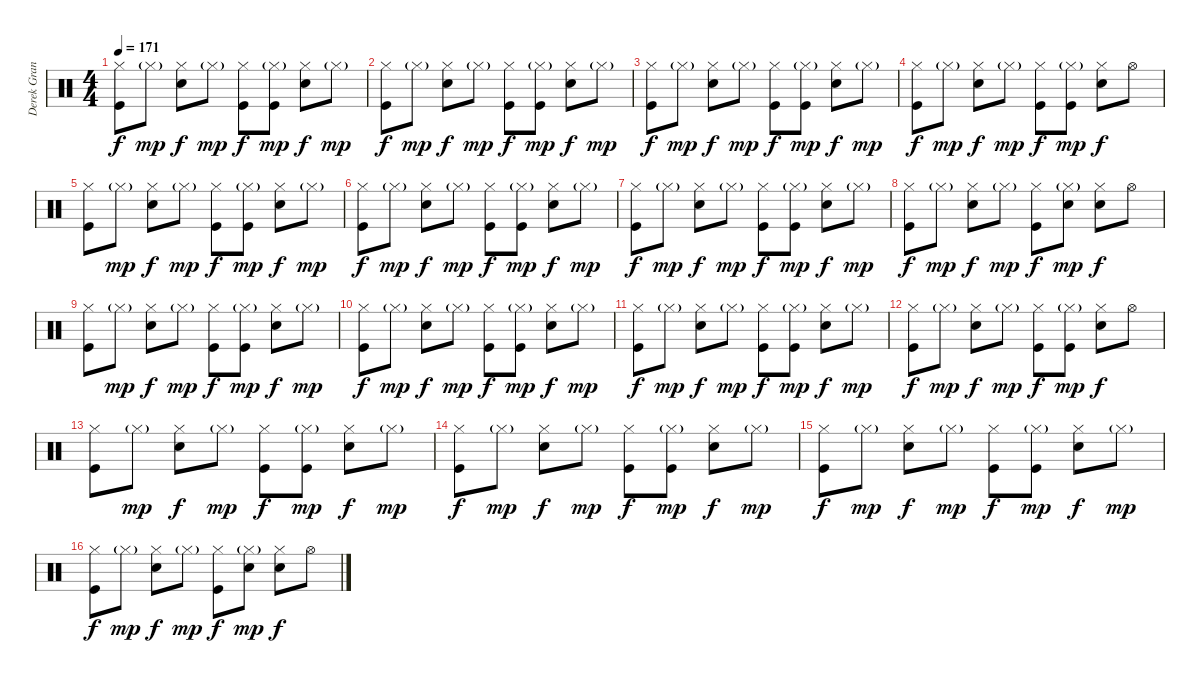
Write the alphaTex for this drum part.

\track ("Derek Grant" "Derek Gran") {instrument percussion}
\staff {score}
\articulation defaults
\ts (4 4)
\tempo 171
\clef neutral
\ks c
("Hi-Hat (closed)" "Kick (hit)").8{dy f} "Hi-Hat (closed)"{g}.8{dy mp} ("Hi-Hat (closed)" "Electric Snare (hit)").8{dy f} "Hi-Hat (closed)"{g}.8{dy mp} ("Hi-Hat (closed)" "Kick (hit)").8{dy f} ("Hi-Hat (closed)"{g} "Kick (hit)").8{dy mp} ("Hi-Hat (closed)" "Electric Snare (hit)").8{dy f} "Hi-Hat (closed)"{g}.8{dy mp} |
("Hi-Hat (closed)" "Kick (hit)").8{dy f} "Hi-Hat (closed)"{g}.8{dy mp} ("Hi-Hat (closed)" "Electric Snare (hit)").8{dy f} "Hi-Hat (closed)"{g}.8{dy mp} ("Hi-Hat (closed)" "Kick (hit)").8{dy f} ("Hi-Hat (closed)"{g} "Kick (hit)").8{dy mp} ("Hi-Hat (closed)" "Electric Snare (hit)").8{dy f} "Hi-Hat (closed)"{g}.8{dy mp} |
("Hi-Hat (closed)" "Kick (hit)").8{dy f} "Hi-Hat (closed)"{g}.8{dy mp} ("Hi-Hat (closed)" "Electric Snare (hit)").8{dy f} "Hi-Hat (closed)"{g}.8{dy mp} ("Hi-Hat (closed)" "Kick (hit)").8{dy f} ("Hi-Hat (closed)"{g} "Kick (hit)").8{dy mp} ("Hi-Hat (closed)" "Electric Snare (hit)").8{dy f} "Hi-Hat (closed)"{g}.8{dy mp} |
("Hi-Hat (closed)" "Kick (hit)").8{dy f} "Hi-Hat (closed)"{g}.8{dy mp} ("Hi-Hat (closed)" "Electric Snare (hit)").8{dy f} "Hi-Hat (closed)"{g}.8{dy mp} ("Hi-Hat (closed)" "Kick (hit)").8{dy f} ("Hi-Hat (closed)"{g} "Kick (hit)").8{dy mp} ("Hi-Hat (closed)" "Electric Snare (hit)").8{dy f} "Hi-Hat (open)".8 |
("Hi-Hat (closed)" "Kick (hit)").8 "Hi-Hat (closed)"{g}.8{dy mp} ("Hi-Hat (closed)" "Electric Snare (hit)").8{dy f} "Hi-Hat (closed)"{g}.8{dy mp} ("Hi-Hat (closed)" "Kick (hit)").8{dy f} ("Hi-Hat (closed)"{g} "Kick (hit)").8{dy mp} ("Hi-Hat (closed)" "Electric Snare (hit)").8{dy f} "Hi-Hat (closed)"{g}.8{dy mp} |
("Hi-Hat (closed)" "Kick (hit)").8{dy f} "Hi-Hat (closed)"{g}.8{dy mp} ("Hi-Hat (closed)" "Electric Snare (hit)").8{dy f} "Hi-Hat (closed)"{g}.8{dy mp} ("Hi-Hat (closed)" "Kick (hit)").8{dy f} ("Hi-Hat (closed)"{g} "Kick (hit)").8{dy mp} ("Hi-Hat (closed)" "Electric Snare (hit)").8{dy f} "Hi-Hat (closed)"{g}.8{dy mp} |
("Hi-Hat (closed)" "Kick (hit)").8{dy f} "Hi-Hat (closed)"{g}.8{dy mp} ("Hi-Hat (closed)" "Electric Snare (hit)").8{dy f} "Hi-Hat (closed)"{g}.8{dy mp} ("Hi-Hat (closed)" "Kick (hit)").8{dy f} ("Hi-Hat (closed)"{g} "Kick (hit)").8{dy mp} ("Hi-Hat (closed)" "Electric Snare (hit)").8{dy f} "Hi-Hat (closed)"{g}.8{dy mp} |
("Hi-Hat (closed)" "Kick (hit)").8{dy f} "Hi-Hat (closed)"{g}.8{dy mp} ("Hi-Hat (closed)" "Electric Snare (hit)").8{dy f} "Hi-Hat (closed)"{g}.8{dy mp} ("Hi-Hat (closed)" "Kick (hit)").8{dy f} ("Hi-Hat (closed)"{g} "Electric Snare (hit)").8{dy mp} ("Hi-Hat (closed)" "Electric Snare (hit)").8{dy f} "Hi-Hat (open)".8 |
("Hi-Hat (closed)" "Kick (hit)").8 "Hi-Hat (closed)"{g}.8{dy mp} ("Hi-Hat (closed)" "Electric Snare (hit)").8{dy f} "Hi-Hat (closed)"{g}.8{dy mp} ("Hi-Hat (closed)" "Kick (hit)").8{dy f} ("Hi-Hat (closed)"{g} "Kick (hit)").8{dy mp} ("Hi-Hat (closed)" "Electric Snare (hit)").8{dy f} "Hi-Hat (closed)"{g}.8{dy mp} |
("Hi-Hat (closed)" "Kick (hit)").8{dy f} "Hi-Hat (closed)"{g}.8{dy mp} ("Hi-Hat (closed)" "Electric Snare (hit)").8{dy f} "Hi-Hat (closed)"{g}.8{dy mp} ("Hi-Hat (closed)" "Kick (hit)").8{dy f} ("Hi-Hat (closed)"{g} "Kick (hit)").8{dy mp} ("Hi-Hat (closed)" "Electric Snare (hit)").8{dy f} "Hi-Hat (closed)"{g}.8{dy mp} |
("Hi-Hat (closed)" "Kick (hit)").8{dy f} "Hi-Hat (closed)"{g}.8{dy mp} ("Hi-Hat (closed)" "Electric Snare (hit)").8{dy f} "Hi-Hat (closed)"{g}.8{dy mp} ("Hi-Hat (closed)" "Kick (hit)").8{dy f} ("Hi-Hat (closed)"{g} "Kick (hit)").8{dy mp} ("Hi-Hat (closed)" "Electric Snare (hit)").8{dy f} "Hi-Hat (closed)"{g}.8{dy mp} |
("Hi-Hat (closed)" "Kick (hit)").8{dy f} "Hi-Hat (closed)"{g}.8{dy mp} ("Hi-Hat (closed)" "Electric Snare (hit)").8{dy f} "Hi-Hat (closed)"{g}.8{dy mp} ("Hi-Hat (closed)" "Kick (hit)").8{dy f} ("Hi-Hat (closed)"{g} "Kick (hit)").8{dy mp} ("Hi-Hat (closed)" "Electric Snare (hit)").8{dy f} "Hi-Hat (open)".8 |
("Hi-Hat (closed)" "Kick (hit)").8 "Hi-Hat (closed)"{g}.8{dy mp} ("Hi-Hat (closed)" "Electric Snare (hit)").8{dy f} "Hi-Hat (closed)"{g}.8{dy mp} ("Hi-Hat (closed)" "Kick (hit)").8{dy f} ("Hi-Hat (closed)"{g} "Kick (hit)").8{dy mp} ("Hi-Hat (closed)" "Electric Snare (hit)").8{dy f} "Hi-Hat (closed)"{g}.8{dy mp} |
("Hi-Hat (closed)" "Kick (hit)").8{dy f} "Hi-Hat (closed)"{g}.8{dy mp} ("Hi-Hat (closed)" "Electric Snare (hit)").8{dy f} "Hi-Hat (closed)"{g}.8{dy mp} ("Hi-Hat (closed)" "Kick (hit)").8{dy f} ("Hi-Hat (closed)"{g} "Kick (hit)").8{dy mp} ("Hi-Hat (closed)" "Electric Snare (hit)").8{dy f} "Hi-Hat (closed)"{g}.8{dy mp} |
("Hi-Hat (closed)" "Kick (hit)").8{dy f} "Hi-Hat (closed)"{g}.8{dy mp} ("Hi-Hat (closed)" "Electric Snare (hit)").8{dy f} "Hi-Hat (closed)"{g}.8{dy mp} ("Hi-Hat (closed)" "Kick (hit)").8{dy f} ("Hi-Hat (closed)"{g} "Kick (hit)").8{dy mp} ("Hi-Hat (closed)" "Electric Snare (hit)").8{dy f} "Hi-Hat (closed)"{g}.8{dy mp} |
("Hi-Hat (closed)" "Kick (hit)").8{dy f} "Hi-Hat (closed)"{g}.8{dy mp} ("Hi-Hat (closed)" "Electric Snare (hit)").8{dy f} "Hi-Hat (closed)"{g}.8{dy mp} ("Hi-Hat (closed)" "Kick (hit)").8{dy f} ("Hi-Hat (closed)"{g} "Electric Snare (hit)").8{dy mp} ("Hi-Hat (closed)" "Electric Snare (hit)").8{dy f} "Hi-Hat (open)".8
